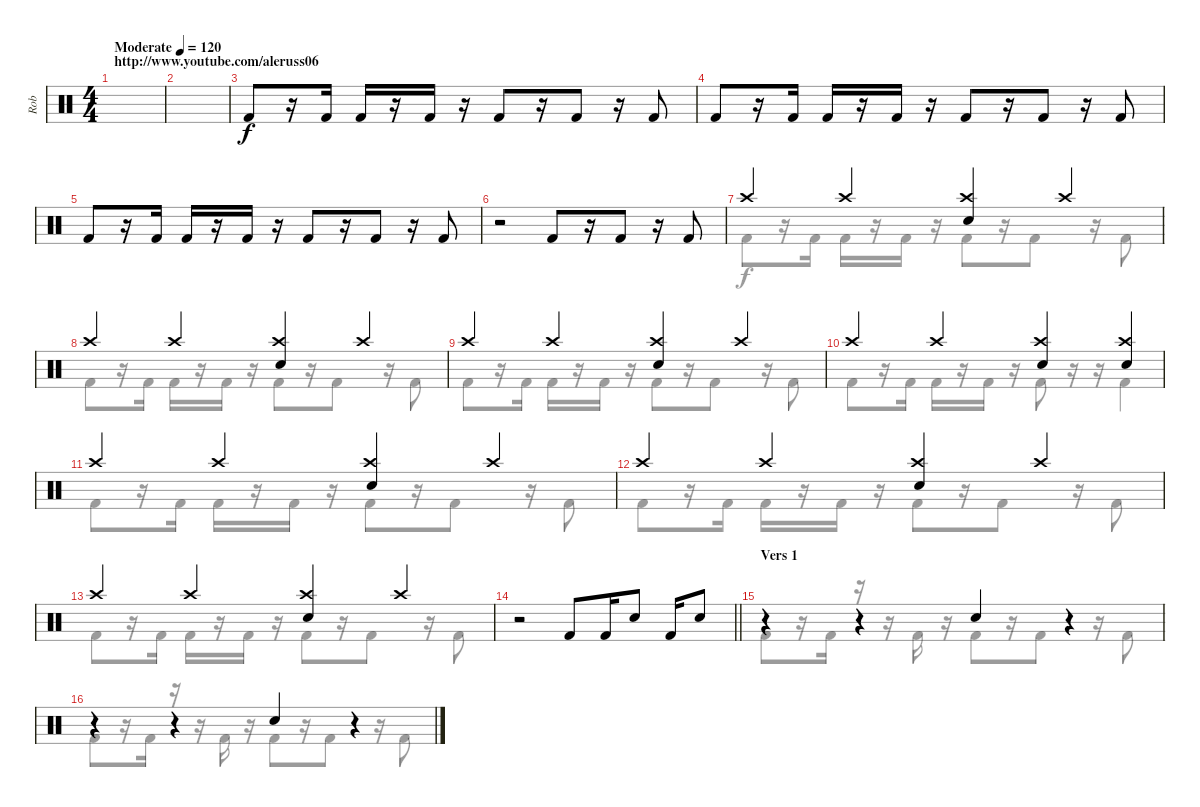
\track ("Rob" "Rob") {instrument percussion}
\staff {score}
\articulation defaults
\voice
\ts (4 4)
\section ("" "http://www.youtube.com/aleruss06")
\tempo (120 "Moderate")
\clef neutral
\ks c
|
|
"Kick (hit) 2".8 r.16 "Kick (hit) 2".16 "Kick (hit) 2".16 r.16 "Kick (hit) 2".16 r.16 "Kick (hit) 2".8 r.16 "Kick (hit) 2".8 r.16 "Kick (hit) 2".8 |
"Kick (hit) 2".8 r.16 "Kick (hit) 2".16 "Kick (hit) 2".16 r.16 "Kick (hit) 2".16 r.16 "Kick (hit) 2".8 r.16 "Kick (hit) 2".8 r.16 "Kick (hit) 2".8 |
"Kick (hit) 2".8 r.16 "Kick (hit) 2".16 "Kick (hit) 2".16 r.16 "Kick (hit) 2".16 r.16 "Kick (hit) 2".8 r.16 "Kick (hit) 2".8 r.16 "Kick (hit) 2".8 |
r.2 "Kick (hit) 2".8 r.16 "Kick (hit) 2".8 r.16 "Kick (hit) 2".8 |
"Crash high (hit)".4 "Crash high (hit)".4 ("Crash high (hit)" "Snare (hit) 2").4 "Crash high (hit)".4 |
"Crash high (hit)".4 "Crash high (hit)".4 ("Crash high (hit)" "Snare (hit) 2").4 "Crash high (hit)".4 |
"Crash high (hit)".4 "Crash high (hit)".4 ("Crash high (hit)" "Snare (hit) 2").4 "Crash high (hit)".4 |
"Crash high (hit)".4 "Crash high (hit)".4 ("Crash high (hit)" "Snare (hit) 2").4 ("Crash high (hit)" "Snare (hit) 2").4 |
"Crash high (hit)".4 "Crash high (hit)".4 ("Crash high (hit)" "Snare (hit) 2").4 "Crash high (hit)".4 |
"Crash high (hit)".4 "Crash high (hit)".4 ("Crash high (hit)" "Snare (hit) 2").4 "Crash high (hit)".4 |
"Crash high (hit)".4 "Crash high (hit)".4 ("Crash high (hit)" "Snare (hit) 2").4 "Crash high (hit)".4 |
\barLineRight lightlight
r.2 "Kick (hit) 2".8 "Kick (hit) 2".16 "Snare (hit) 2".8 "Kick (hit) 2".16 "Snare (hit) 2".8 |
\section ("" "Vers 1")
r.4 r.4 "Snare (hit) 2".4 r.4 |
r.4 r.4 "Snare (hit) 2".4 r.4
\voice
\clef neutral
\ottava regular
\simile none
\ks c
|
|
|
|
|
|
"Kick (hit) 2".8 r.16 "Kick (hit) 2".16 "Kick (hit) 2".16 r.16 "Kick (hit) 2".16 r.16 "Kick (hit) 2".8 r.16 "Kick (hit) 2".8 r.16 "Kick (hit) 2".8 |
"Kick (hit) 2".8 r.16 "Kick (hit) 2".16 "Kick (hit) 2".16 r.16 "Kick (hit) 2".16 r.16 "Kick (hit) 2".8 r.16 "Kick (hit) 2".8 r.16 "Kick (hit) 2".8 |
"Kick (hit) 2".8 r.16 "Kick (hit) 2".16 "Kick (hit) 2".16 r.16 "Kick (hit) 2".16 r.16 "Kick (hit) 2".8 r.16 "Kick (hit) 2".8 r.16 "Kick (hit) 2".8 |
"Kick (hit) 2".8 r.16 "Kick (hit) 2".16 "Kick (hit) 2".16 r.16 "Kick (hit) 2".16 r.16 "Kick (hit) 2".8 r.16 r.16 "Kick (hit) 2".4 |
"Kick (hit) 2".8 r.16 "Kick (hit) 2".16 "Kick (hit) 2".16 r.16 "Kick (hit) 2".16 r.16 "Kick (hit) 2".8 r.16 "Kick (hit) 2".8 r.16 "Kick (hit) 2".8 |
"Kick (hit) 2".8 r.16 "Kick (hit) 2".16 "Kick (hit) 2".16 r.16 "Kick (hit) 2".16 r.16 "Kick (hit) 2".8 r.16 "Kick (hit) 2".8 r.16 "Kick (hit) 2".8 |
"Kick (hit) 2".8 r.16 "Kick (hit) 2".16 "Kick (hit) 2".16 r.16 "Kick (hit) 2".16 r.16 "Kick (hit) 2".8 r.16 "Kick (hit) 2".8 r.16 "Kick (hit) 2".8 |
\barLineRight lightlight
|
"Kick (hit) 2".8 r.16 "Kick (hit) 2".16 r.16 r.16 "Kick (hit) 2".16 r.16 "Kick (hit) 2".8 r.16 "Kick (hit) 2".8 r.16 "Kick (hit) 2".8 |
"Kick (hit) 2".8 r.16 "Kick (hit) 2".16 r.16 r.16 "Kick (hit) 2".16 r.16 "Kick (hit) 2".8 r.16 "Kick (hit) 2".8 r.16 "Kick (hit) 2".8
